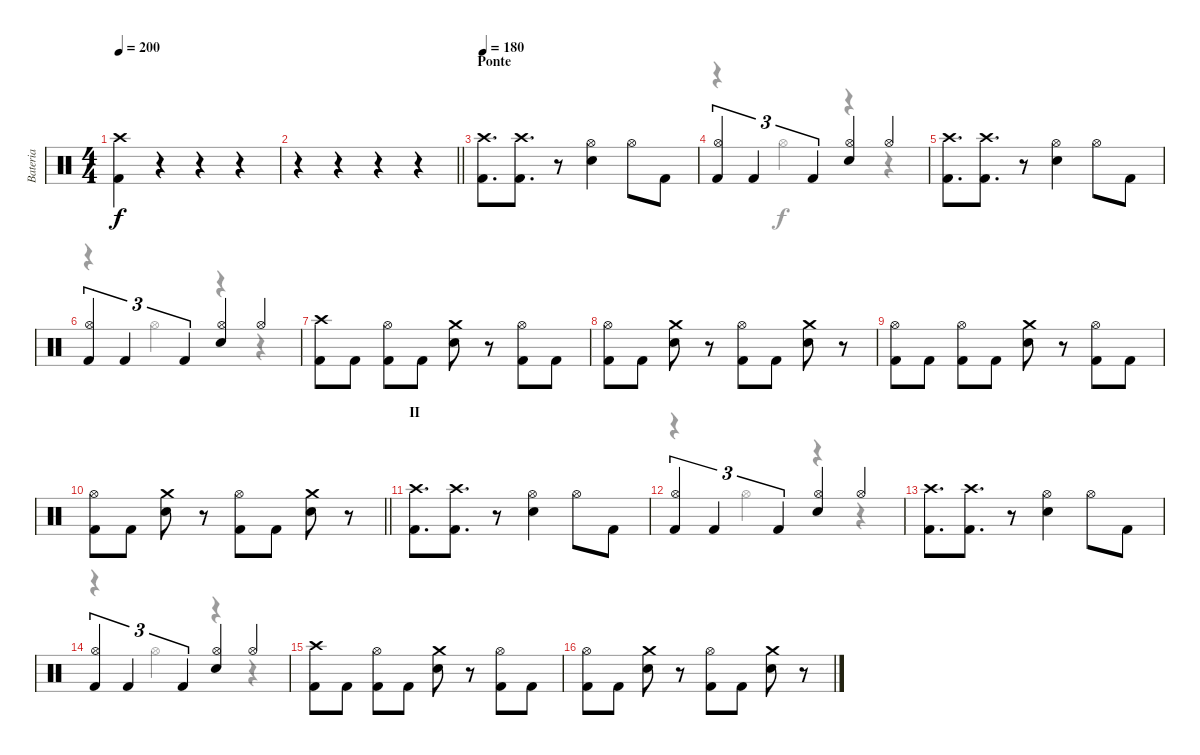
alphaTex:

\track ("Bateria" "Bateria") {instrument percussion}
\staff {score}
\articulation defaults
\voice
\ts (4 4)
\tempo 200
\clef neutral
\ks c
("Kick (hit) 2" "Crash high (hit)").4{dy f} r.4 r.4 r.4 |
\barLineRight lightlight
r.4 r.4 r.4 r.4 |
\section ("" "Ponte")
\tempo 180
("Kick (hit) 2" "Crash high (hit)").8{d} ("Kick (hit) 2" "Crash high (hit)").8{d} r.8 ("Electric Snare (hit)" "Hi-Hat (open)").4 "Hi-Hat (open)".8 "Kick (hit) 2".8 |
("Kick (hit) 2" "Hi-Hat (open)").4{tu (3 2)} "Kick (hit) 2".4{tu (3 2)} "Kick (hit) 2".4{tu (3 2)} ("Electric Snare (hit)" "Hi-Hat (open)").4 "Hi-Hat (open)".4 |
("Kick (hit) 2" "Crash high (hit)").8{d} ("Kick (hit) 2" "Crash high (hit)").8{d} r.8 ("Electric Snare (hit)" "Hi-Hat (open)").4 "Hi-Hat (open)".8 "Kick (hit) 2".8 |
("Kick (hit) 2" "Hi-Hat (open)").4{tu (3 2)} "Kick (hit) 2".4{tu (3 2)} "Kick (hit) 2".4{tu (3 2)} ("Electric Snare (hit)" "Hi-Hat (open)").4 "Hi-Hat (open)".4 |
("Kick (hit) 2" "Crash high (hit)").8 "Kick (hit) 2".8 ("Kick (hit) 2" "Hi-Hat (open)").8 "Kick (hit) 2".8 ("Electric Snare (hit)" "Crash medium (hit)").8 r.8 ("Kick (hit) 2" "Hi-Hat (open)").8 "Kick (hit) 2".8 |
("Kick (hit) 2" "Hi-Hat (open)").8 "Kick (hit) 2".8 ("Electric Snare (hit)" "Crash medium (hit)").8 r.8 ("Kick (hit) 2" "Hi-Hat (open)").8 "Kick (hit) 2".8 ("Electric Snare (hit)" "Crash medium (hit)").8 r.8 |
("Kick (hit) 2" "Hi-Hat (open)").8 "Kick (hit) 2".8 ("Kick (hit) 2" "Hi-Hat (open)").8 "Kick (hit) 2".8 ("Electric Snare (hit)" "Crash medium (hit)").8 r.8 ("Kick (hit) 2" "Hi-Hat (open)").8 "Kick (hit) 2".8 |
\barLineRight lightlight
("Kick (hit) 2" "Hi-Hat (open)").8 "Kick (hit) 2".8 ("Electric Snare (hit)" "Crash medium (hit)").8 r.8 ("Kick (hit) 2" "Hi-Hat (open)").8 "Kick (hit) 2".8 ("Electric Snare (hit)" "Crash medium (hit)").8 r.8 |
\section ("" "II")
("Kick (hit) 2" "Crash high (hit)").8{d} ("Kick (hit) 2" "Crash high (hit)").8{d} r.8 ("Electric Snare (hit)" "Hi-Hat (open)").4 "Hi-Hat (open)".8 "Kick (hit) 2".8 |
("Kick (hit) 2" "Hi-Hat (open)").4{tu (3 2)} "Kick (hit) 2".4{tu (3 2)} "Kick (hit) 2".4{tu (3 2)} ("Electric Snare (hit)" "Hi-Hat (open)").4 "Hi-Hat (open)".4 |
("Kick (hit) 2" "Crash high (hit)").8{d} ("Kick (hit) 2" "Crash high (hit)").8{d} r.8 ("Electric Snare (hit)" "Hi-Hat (open)").4 "Hi-Hat (open)".8 "Kick (hit) 2".8 |
("Kick (hit) 2" "Hi-Hat (open)").4{tu (3 2)} "Kick (hit) 2".4{tu (3 2)} "Kick (hit) 2".4{tu (3 2)} ("Electric Snare (hit)" "Hi-Hat (open)").4 "Hi-Hat (open)".4 |
("Kick (hit) 2" "Crash high (hit)").8 "Kick (hit) 2".8 ("Kick (hit) 2" "Hi-Hat (open)").8 "Kick (hit) 2".8 ("Electric Snare (hit)" "Crash medium (hit)").8 r.8 ("Kick (hit) 2" "Hi-Hat (open)").8 "Kick (hit) 2".8 |
("Kick (hit) 2" "Hi-Hat (open)").8 "Kick (hit) 2".8 ("Electric Snare (hit)" "Crash medium (hit)").8 r.8 ("Kick (hit) 2" "Hi-Hat (open)").8 "Kick (hit) 2".8 ("Electric Snare (hit)" "Crash medium (hit)").8 r.8
\voice
\clef neutral
\ottava regular
\simile none
\ks c
|
\barLineRight lightlight
|
|
r.4 "Hi-Hat (open)".4 r.4 r.4 |
|
r.4 "Hi-Hat (open)".4 r.4 r.4 |
|
|
|
\barLineRight lightlight
|
|
r.4 "Hi-Hat (open)".4 r.4 r.4 |
|
r.4 "Hi-Hat (open)".4 r.4 r.4 |
|
